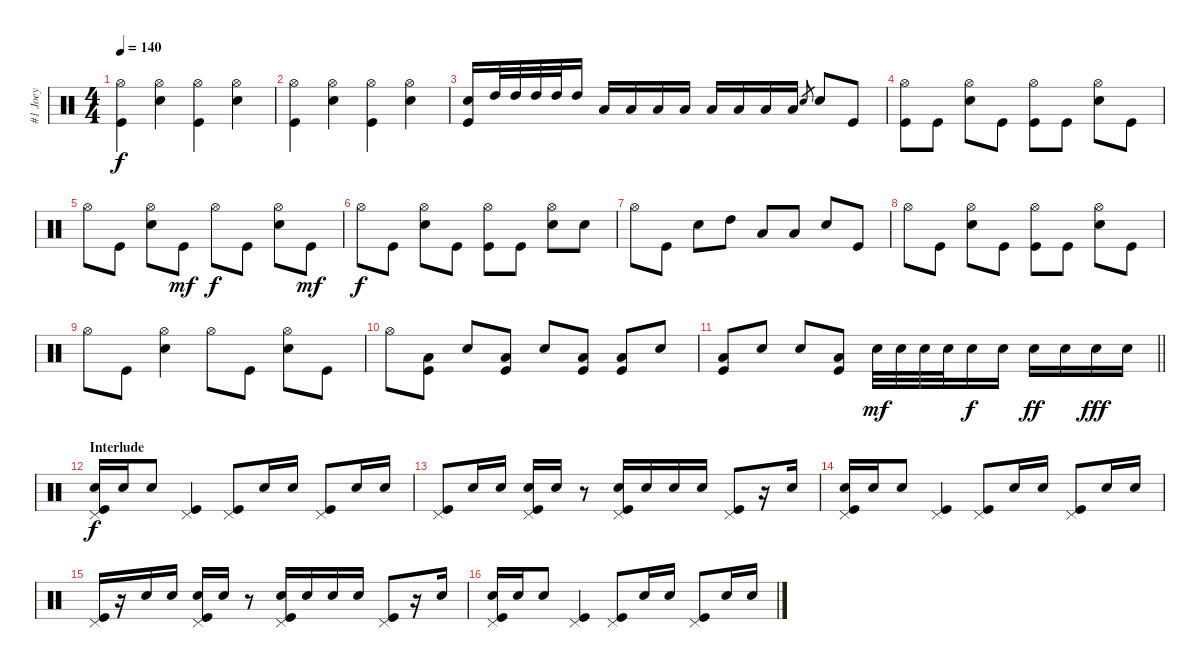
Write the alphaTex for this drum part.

\track ("#1 Joey" "#1 Joey") {solo instrument percussion}
\staff {score}
\articulation defaults
\ts (4 4)
\tempo 140
\clef neutral
\ks c
("Hi-Hat (open)" "Kick (hit)").4{dy f} ("Hi-Hat (open)" "Electric Snare (hit)").4 ("Hi-Hat (open)" "Kick (hit)").4 ("Hi-Hat (open)" "Electric Snare (hit)").4 |
("Hi-Hat (open)" "Kick (hit)").4 ("Hi-Hat (open)" "Electric Snare (hit)").4 ("Hi-Hat (open)" "Kick (hit)").4 ("Hi-Hat (open)" "Electric Snare (hit)").4 |
("Electric Snare (hit)" "Kick (hit)").16 "High Tom (hit)".32 "High Tom (hit)".32 "High Tom (hit)".32 "High Tom (hit)".32 "High Tom (hit)".16 "Low Tom (hit)".16 "Low Tom (hit)".16 "Low Tom (hit)".16 "Low Tom (hit)".16 "Low Floor Tom (hit)".16 "Low Floor Tom (hit)".16 "Low Floor Tom (hit)".16 "Low Floor Tom (hit)".16 "Electric Snare (hit)".8{gr} "Electric Snare (hit)".8 "Kick (hit)".8 |
("Hi-Hat (open)" "Kick (hit)").8 "Kick (hit)".8 ("Hi-Hat (open)" "Electric Snare (hit)").8 "Kick (hit)".8 ("Hi-Hat (open)" "Kick (hit)").8 "Kick (hit)".8 ("Hi-Hat (open)" "Electric Snare (hit)").8 "Kick (hit)".8 |
"Hi-Hat (open)".8 "Kick (hit)".8 ("Hi-Hat (open)" "Electric Snare (hit)").8 "Kick (hit)".8{dy mf} "Hi-Hat (open)".8{dy f} "Kick (hit)".8 ("Hi-Hat (open)" "Electric Snare (hit)").8 "Kick (hit)".8{dy mf} |
"Hi-Hat (open)".8{dy f} "Kick (hit)".8 ("Hi-Hat (open)" "Electric Snare (hit)").8 "Kick (hit)".8 ("Hi-Hat (open)" "Kick (hit)").8 "Kick (hit)".8 ("Hi-Hat (open)" "Electric Snare (hit)").8 "Electric Snare (hit)".8 |
"Hi-Hat (open)".8 "Kick (hit)".8 "Electric Snare (hit)".8 "High Tom (hit)".8 "Low Tom (hit)".8 "Low Floor Tom (hit)".8 "Electric Snare (hit)".8 "Kick (hit)".8 |
"Hi-Hat (open)".8 "Kick (hit)".8 ("Hi-Hat (open)" "Electric Snare (hit)").8 "Kick (hit)".8 ("Hi-Hat (open)" "Kick (hit)").8 "Kick (hit)".8 ("Hi-Hat (open)" "Electric Snare (hit)").8 "Kick (hit)".8 |
"Hi-Hat (open)".8 "Kick (hit)".8 ("Hi-Hat (open)" "Electric Snare (hit)").4 "Hi-Hat (open)".8 "Kick (hit)".8 ("Hi-Hat (open)" "Electric Snare (hit)").8 "Kick (hit)".8 |
"Hi-Hat (open)".8 ("Low Tom (hit)" "Kick (hit)").8 "Electric Snare (hit)".8 ("Low Tom (hit)" "Kick (hit)").8 "Electric Snare (hit)".8 ("Low Tom (hit)" "Kick (hit)").8 ("Low Tom (hit)" "Kick (hit)").8 "Electric Snare (hit)".8 |
\barLineRight lightlight
("Low Tom (hit)" "Kick (hit)").8 "Electric Snare (hit)".8 "Electric Snare (hit)".8 ("Low Tom (hit)" "Kick (hit)").8 "Electric Snare (hit)".32{dy mf} "Electric Snare (hit)".32 "Electric Snare (hit)".32 "Electric Snare (hit)".32 "Electric Snare (hit)".16{dy f} "Electric Snare (hit)".16 "Electric Snare (hit)".16{dy ff} "Electric Snare (hit)".16 "Electric Snare (hit)".16{dy fff} "Electric Snare (hit)".16 |
\section ("" "Interlude")
("Pedal Hi-Hat (hit)" "Electric Snare (hit)" "Kick (hit)").16{dy f} "Electric Snare (hit)".16 "Electric Snare (hit)".8 ("Pedal Hi-Hat (hit)" "Kick (hit)").4 ("Pedal Hi-Hat (hit)" "Kick (hit)").8 "Electric Snare (hit)".16 "Electric Snare (hit)".16 ("Pedal Hi-Hat (hit)" "Kick (hit)").8 "Electric Snare (hit)".16 "Electric Snare (hit)".16 |
("Pedal Hi-Hat (hit)" "Kick (hit)").8 "Electric Snare (hit)".16 "Electric Snare (hit)".16 ("Pedal Hi-Hat (hit)" "Electric Snare (hit)" "Kick (hit)").16 "Electric Snare (hit)".16 r.8 ("Pedal Hi-Hat (hit)" "Electric Snare (hit)" "Kick (hit)").16 "Electric Snare (hit)".16 "Electric Snare (hit)".16 "Electric Snare (hit)".16 ("Pedal Hi-Hat (hit)" "Kick (hit)").8 r.16 "Electric Snare (hit)".16 |
("Pedal Hi-Hat (hit)" "Electric Snare (hit)" "Kick (hit)").16 "Electric Snare (hit)".16 "Electric Snare (hit)".8 ("Pedal Hi-Hat (hit)" "Kick (hit)").4 ("Pedal Hi-Hat (hit)" "Kick (hit)").8 "Electric Snare (hit)".16 "Electric Snare (hit)".16 ("Pedal Hi-Hat (hit)" "Kick (hit)").8 "Electric Snare (hit)".16 "Electric Snare (hit)".16 |
("Pedal Hi-Hat (hit)" "Kick (hit)").16 r.16 "Electric Snare (hit)".16 "Electric Snare (hit)".16 ("Pedal Hi-Hat (hit)" "Electric Snare (hit)" "Kick (hit)").16 "Electric Snare (hit)".16 r.8 ("Pedal Hi-Hat (hit)" "Electric Snare (hit)" "Kick (hit)").16 "Electric Snare (hit)".16 "Electric Snare (hit)".16 "Electric Snare (hit)".16 ("Pedal Hi-Hat (hit)" "Kick (hit)").8 r.16 "Electric Snare (hit)".16 |
("Pedal Hi-Hat (hit)" "Electric Snare (hit)" "Kick (hit)").16 "Electric Snare (hit)".16 "Electric Snare (hit)".8 ("Pedal Hi-Hat (hit)" "Kick (hit)").4 ("Pedal Hi-Hat (hit)" "Kick (hit)").8 "Electric Snare (hit)".16 "Electric Snare (hit)".16 ("Pedal Hi-Hat (hit)" "Kick (hit)").8 "Electric Snare (hit)".16 "Electric Snare (hit)".16
